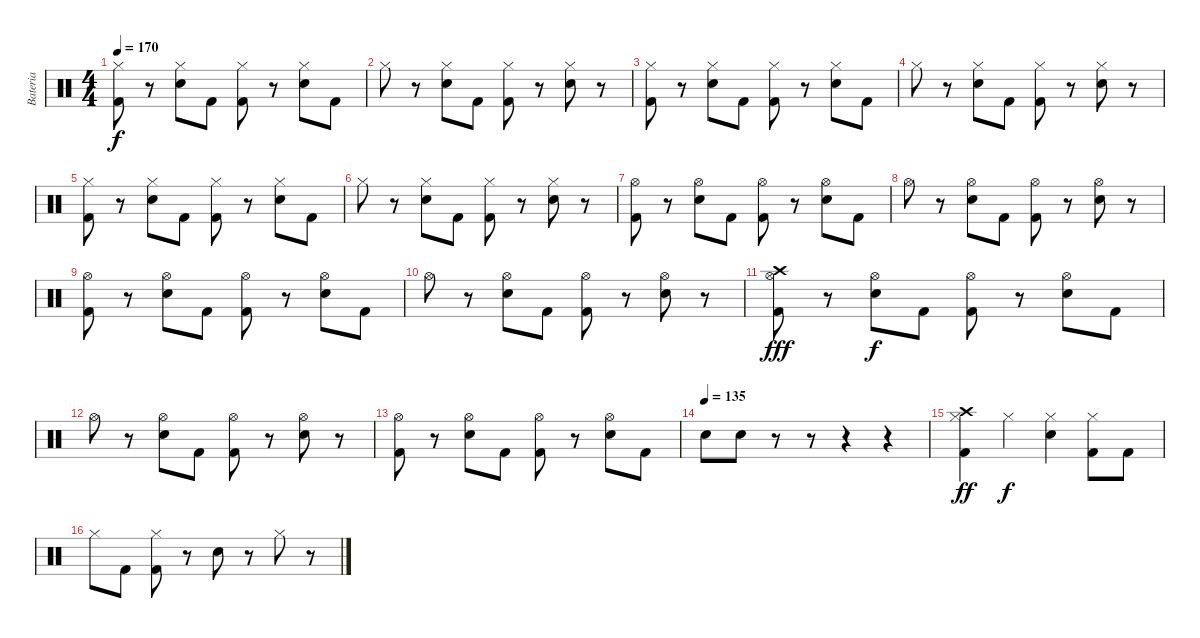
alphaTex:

\track ("Bateria" "Bateria") {instrument percussion}
\staff {score}
\articulation defaults
\ts (4 4)
\tempo 170
\clef neutral
\ks c
("Kick (hit) 2" "Hi-Hat (closed)").8{dy f} r.8 ("Snare (hit) 2" "Hi-Hat (closed)").8 "Kick (hit) 2".8 ("Kick (hit) 2" "Hi-Hat (closed)").8 r.8 ("Snare (hit) 2" "Hi-Hat (closed)").8 "Kick (hit) 2".8 |
"Hi-Hat (closed)".8 r.8 ("Snare (hit) 2" "Hi-Hat (closed)").8 "Kick (hit) 2".8 ("Kick (hit) 2" "Hi-Hat (closed)").8 r.8 ("Snare (hit) 2" "Hi-Hat (closed)").8 r.8 |
("Kick (hit) 2" "Hi-Hat (closed)").8 r.8 ("Snare (hit) 2" "Hi-Hat (closed)").8 "Kick (hit) 2".8 ("Kick (hit) 2" "Hi-Hat (closed)").8 r.8 ("Snare (hit) 2" "Hi-Hat (closed)").8 "Kick (hit) 2".8 |
"Hi-Hat (closed)".8 r.8 ("Snare (hit) 2" "Hi-Hat (closed)").8 "Kick (hit) 2".8 ("Kick (hit) 2" "Hi-Hat (closed)").8 r.8 ("Snare (hit) 2" "Hi-Hat (closed)").8 r.8 |
("Kick (hit) 2" "Hi-Hat (closed)").8 r.8 ("Snare (hit) 2" "Hi-Hat (closed)").8 "Kick (hit) 2".8 ("Kick (hit) 2" "Hi-Hat (closed)").8 r.8 ("Snare (hit) 2" "Hi-Hat (closed)").8 "Kick (hit) 2".8 |
"Hi-Hat (closed)".8 r.8 ("Snare (hit) 2" "Hi-Hat (closed)").8 "Kick (hit) 2".8 ("Kick (hit) 2" "Hi-Hat (closed)").8 r.8 ("Snare (hit) 2" "Hi-Hat (closed)").8 r.8 |
("Kick (hit) 2" "Hi-Hat (open)").8 r.8 ("Snare (hit) 2" "Hi-Hat (open)").8 "Kick (hit) 2".8 ("Kick (hit) 2" "Hi-Hat (open)").8 r.8 ("Snare (hit) 2" "Hi-Hat (open)").8 "Kick (hit) 2".8 |
"Hi-Hat (open)".8 r.8 ("Snare (hit) 2" "Hi-Hat (open)").8 "Kick (hit) 2".8 ("Kick (hit) 2" "Hi-Hat (open)").8 r.8 ("Snare (hit) 2" "Hi-Hat (open)").8 r.8 |
("Kick (hit) 2" "Hi-Hat (open)").8 r.8 ("Snare (hit) 2" "Hi-Hat (open)").8 "Kick (hit) 2".8 ("Kick (hit) 2" "Hi-Hat (open)").8 r.8 ("Snare (hit) 2" "Hi-Hat (open)").8 "Kick (hit) 2".8 |
"Hi-Hat (open)".8 r.8 ("Snare (hit) 2" "Hi-Hat (open)").8 "Kick (hit) 2".8 ("Kick (hit) 2" "Hi-Hat (open)").8 r.8 ("Snare (hit) 2" "Hi-Hat (open)").8 r.8 |
("Kick (hit) 2" "Hi-Hat (open)" "Crash high (hit)").8{dy fff} r.8 ("Snare (hit) 2" "Hi-Hat (open)").8{dy f} "Kick (hit) 2".8 ("Kick (hit) 2" "Hi-Hat (open)").8 r.8 ("Snare (hit) 2" "Hi-Hat (open)").8 "Kick (hit) 2".8 |
"Hi-Hat (open)".8 r.8 ("Snare (hit) 2" "Hi-Hat (open)").8 "Kick (hit) 2".8 ("Kick (hit) 2" "Hi-Hat (open)").8 r.8 ("Snare (hit) 2" "Hi-Hat (open)").8 r.8 |
("Kick (hit) 2" "Hi-Hat (open)").8 r.8 ("Snare (hit) 2" "Hi-Hat (open)").8 "Kick (hit) 2".8 ("Kick (hit) 2" "Hi-Hat (open)").8 r.8 ("Snare (hit) 2" "Hi-Hat (open)").8 "Kick (hit) 2".8 |
\tempo (135)
"Snare (hit) 2".8 "Snare (hit) 2".8 r.8 r.8 r.4 r.4 |
("Kick (hit) 2" "Hi-Hat (closed)" "Crash high (hit)").4{dy ff} "Hi-Hat (closed)".4{dy f} ("Snare (hit) 2" "Hi-Hat (closed)").4 ("Kick (hit) 2" "Hi-Hat (closed)").8 "Kick (hit) 2".8 |
"Hi-Hat (closed)".8 "Kick (hit) 2".8 ("Kick (hit) 2" "Hi-Hat (closed)").8 r.8 "Snare (hit) 2".8 r.8 "Hi-Hat (closed)".8 r.8
